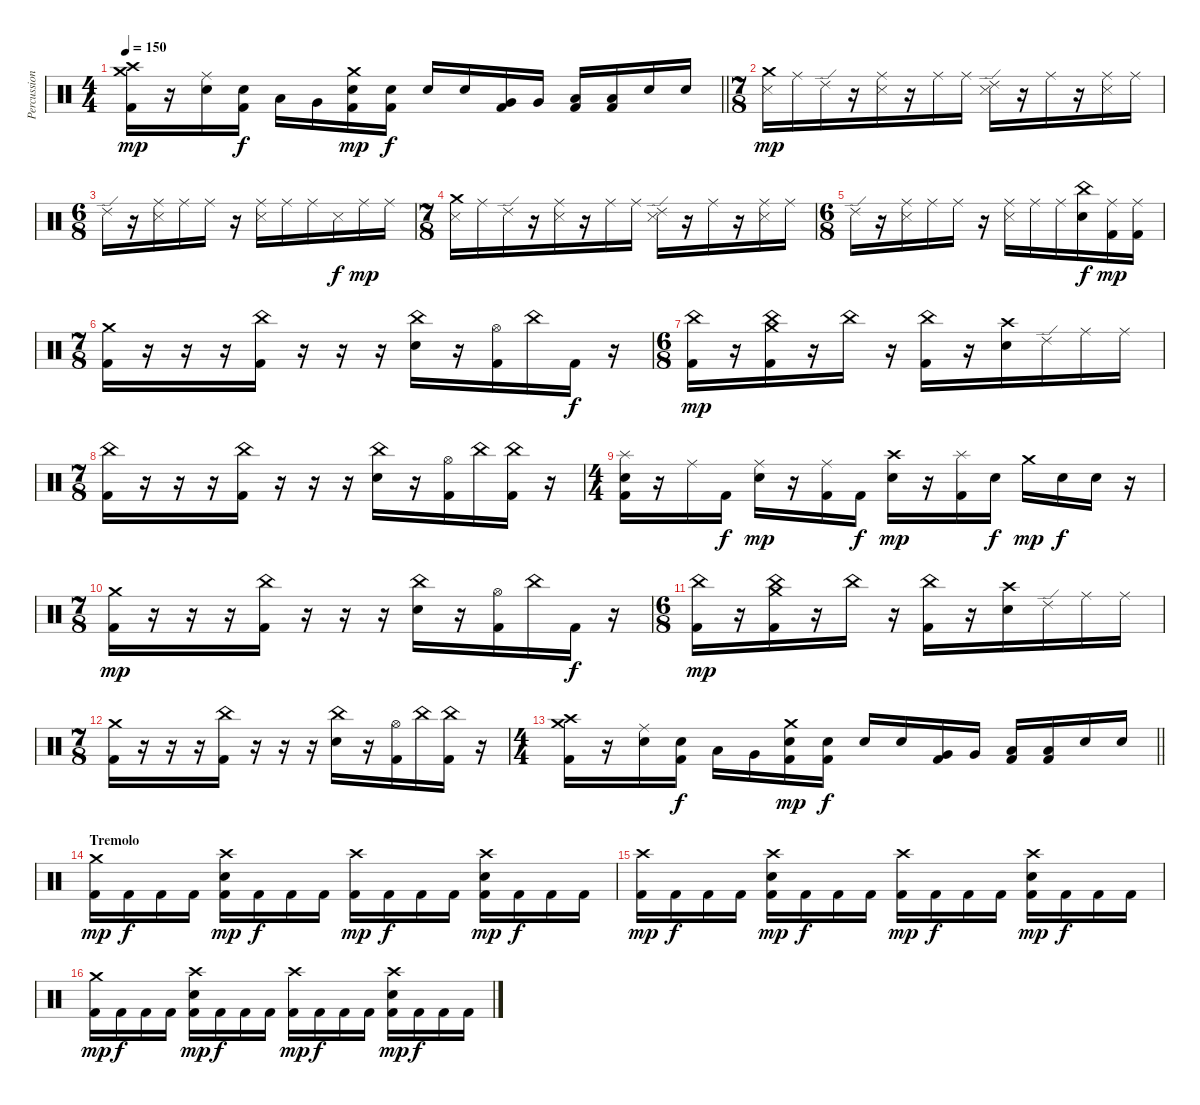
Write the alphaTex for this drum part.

\track ("Percussion" "Percussion") {instrument percussion}
\staff {score}
\articulation defaults
\ts (4 4)
\tempo 150
\clef neutral
\barLineRight lightlight
\ks c
("Crash high (hit)" "Crash medium (hit)" "Kick (hit) 2").16{dy mp} r.16 ("Ride (middle)" "Electric Snare (hit)").16 ("Electric Snare (hit)" "Kick (hit) 2").16{dy f} "Low Tom (hit)".16 "Very Low Tom (hit)".16 ("Crash medium (hit)" "Electric Snare (hit)" "Kick (hit) 2").16{dy mp} ("Electric Snare (hit)" "Kick (hit) 2").16{dy f} "Electric Snare (hit)".16 "Electric Snare (hit)".16 ("Very Low Tom (hit)" "Kick (hit) 2").16 "Very Low Tom (hit)".16 ("Low Floor Tom (hit)" "Kick (hit) 2").16 ("Low Floor Tom (hit)" "Kick (hit) 2").16 "Electric Snare (hit)".16 "Electric Snare (hit)".16 |
\ts (7 8)
("Crash medium (hit)" "Snare (side stick) 3").16{dy mp} "Ride (middle)".16 "Ride (edge) 2".16 r.16 ("Ride (middle)" "Snare (side stick) 3").16 r.16 "Ride (middle)".16 "Ride (middle)".16 ("Ride (edge) 2" "Snare (side stick) 3").16 r.16 "Ride (middle)".16 r.16 ("Ride (middle)" "Snare (side stick) 3").16 "Ride (middle)".16 |
\ts (6 8)
"Ride (edge) 2".16 r.16 ("Ride (middle)" "Snare (side stick) 3").16 "Ride (middle)".16 "Ride (middle)".16 r.16 ("Ride (middle)" "Snare (side stick) 3").16 "Ride (middle)".16 "Ride (middle)".16 "Snare (side stick) 3".16{dy f} "Ride (middle)".16{dy mp} "Ride (middle)".16 |
\ts (7 8)
("Crash medium (hit)" "Snare (side stick) 3").16 "Ride (middle)".16 "Ride (edge) 2".16 r.16 ("Ride (middle)" "Snare (side stick) 3").16 r.16 "Ride (middle)".16 "Ride (middle)".16 ("Ride (edge) 2" "Snare (side stick) 3").16 r.16 "Ride (middle)".16 r.16 ("Ride (middle)" "Snare (side stick) 3").16 "Ride (middle)".16 |
\ts (6 8)
"Ride (edge) 2".16 r.16 ("Ride (middle)" "Snare (side stick) 3").16 "Ride (middle)".16 "Ride (middle)".16 r.16 ("Ride (middle)" "Snare (side stick) 3").16 "Ride (middle)".16 "Ride (middle)".16 ("China (hit)" "Electric Snare (hit)").16{dy f} ("Ride (middle)" "Kick (hit) 2").16{dy mp} ("Ride (middle)" "Kick (hit) 2").16 |
\ts (7 8)
("Crash medium (hit)" "Kick (hit) 2").16 r.16 r.16 r.16 ("China (hit)" "Kick (hit) 2").16 r.16 r.16 r.16 ("China (hit)" "Electric Snare (hit)").16 r.16 ("Hi-Hat (open)" "Kick (hit) 2").16 "China (hit)".16 "Kick (hit) 2".16{dy f} r.16 |
\ts (6 8)
("China (hit)" "Kick (hit) 2").16{dy mp} r.16 ("China (hit)" "Crash medium (hit)" "Kick (hit) 2").16 r.16 "China (hit)".16 r.16 ("China (hit)" "Kick (hit) 2").16 r.16 ("Crash high (hit)" "Electric Snare (hit)").16 "Ride (edge) 2".16 "Ride (middle)".16 "Ride (middle)".16 |
\ts (7 8)
("China (hit)" "Kick (hit) 2").16 r.16 r.16 r.16 ("China (hit)" "Kick (hit) 2").16 r.16 r.16 r.16 ("China (hit)" "Electric Snare (hit)").16 r.16 ("Hi-Hat (open)" "Kick (hit) 2").16 "China (hit)".16 ("China (hit)" "Kick (hit) 2").16 r.16 |
\ts (4 4)
("Splash (hit)" "Electric Snare (hit)" "Kick (hit) 2").16 r.16 "Ride (middle)".16 "Kick (hit) 2".16{dy f} ("Ride (middle)" "Electric Snare (hit)").16{dy mp} r.16 ("Ride (middle)" "Kick (hit) 2").16 "Kick (hit) 2".16{dy f} ("Crash high (hit)" "Electric Snare (hit)").16{dy mp} r.16 ("Splash (hit)" "Kick (hit) 2").16 "Electric Snare (hit)".16{dy f} "Crash medium (hit)".16{dy mp} "Electric Snare (hit)".16{dy f} "Electric Snare (hit)".16 r.16 |
\ts (7 8)
("Crash medium (hit)" "Kick (hit) 2").16{dy mp} r.16 r.16 r.16 ("China (hit)" "Kick (hit) 2").16 r.16 r.16 r.16 ("China (hit)" "Electric Snare (hit)").16 r.16 ("Hi-Hat (open)" "Kick (hit) 2").16 "China (hit)".16 "Kick (hit) 2".16{dy f} r.16 |
\ts (6 8)
("China (hit)" "Kick (hit) 2").16{dy mp} r.16 ("China (hit)" "Crash medium (hit)" "Kick (hit) 2").16 r.16 "China (hit)".16 r.16 ("China (hit)" "Kick (hit) 2").16 r.16 ("Crash high (hit)" "Electric Snare (hit)").16 "Ride (edge) 2".16 "Ride (middle)".16 "Ride (middle)".16 |
\ts (7 8)
("Crash medium (hit)" "Kick (hit) 2").16 r.16 r.16 r.16 ("China (hit)" "Kick (hit) 2").16 r.16 r.16 r.16 ("China (hit)" "Electric Snare (hit)").16 r.16 ("Hi-Hat (open)" "Kick (hit) 2").16 "China (hit)".16 ("China (hit)" "Kick (hit) 2").16 r.16 |
\ts (4 4)
\barLineRight lightlight
("Crash high (hit)" "Crash medium (hit)" "Kick (hit) 2").16 r.16 ("Ride (middle)" "Electric Snare (hit)").16 ("Electric Snare (hit)" "Kick (hit) 2").16{dy f} "Low Tom (hit)".16 "Very Low Tom (hit)".16 ("Crash medium (hit)" "Electric Snare (hit)" "Kick (hit) 2").16{dy mp} ("Electric Snare (hit)" "Kick (hit) 2").16{dy f} "Electric Snare (hit)".16 "Electric Snare (hit)".16 ("Very Low Tom (hit)" "Kick (hit) 2").16 "Very Low Tom (hit)".16 ("Low Floor Tom (hit)" "Kick (hit) 2").16 ("Low Floor Tom (hit)" "Kick (hit) 2").16 "Electric Snare (hit)".16 "Electric Snare (hit)".16 |
\section ("" "Tremolo")
("Crash medium (hit)" "Kick (hit) 2").16{dy mp} "Kick (hit) 2".16{dy f} "Kick (hit) 2".16 "Kick (hit) 2".16 ("Crash high (hit)" "Electric Snare (hit)" "Kick (hit) 2").16{dy mp} "Kick (hit) 2".16{dy f} "Kick (hit) 2".16 "Kick (hit) 2".16 ("Crash high (hit)" "Kick (hit) 2").16{dy mp} "Kick (hit) 2".16{dy f} "Kick (hit) 2".16 "Kick (hit) 2".16 ("Crash high (hit)" "Electric Snare (hit)" "Kick (hit) 2").16{dy mp} "Kick (hit) 2".16{dy f} "Kick (hit) 2".16 "Kick (hit) 2".16 |
("Crash high (hit)" "Kick (hit) 2").16{dy mp} "Kick (hit) 2".16{dy f} "Kick (hit) 2".16 "Kick (hit) 2".16 ("Crash high (hit)" "Electric Snare (hit)" "Kick (hit) 2").16{dy mp} "Kick (hit) 2".16{dy f} "Kick (hit) 2".16 "Kick (hit) 2".16 ("Crash high (hit)" "Kick (hit) 2").16{dy mp} "Kick (hit) 2".16{dy f} "Kick (hit) 2".16 "Kick (hit) 2".16 ("Crash high (hit)" "Electric Snare (hit)" "Kick (hit) 2").16{dy mp} "Kick (hit) 2".16{dy f} "Kick (hit) 2".16 "Kick (hit) 2".16 |
("Crash medium (hit)" "Kick (hit) 2").16{dy mp} "Kick (hit) 2".16{dy f} "Kick (hit) 2".16 "Kick (hit) 2".16 ("Crash high (hit)" "Electric Snare (hit)" "Kick (hit) 2").16{dy mp} "Kick (hit) 2".16{dy f} "Kick (hit) 2".16 "Kick (hit) 2".16 ("Crash high (hit)" "Kick (hit) 2").16{dy mp} "Kick (hit) 2".16{dy f} "Kick (hit) 2".16 "Kick (hit) 2".16 ("Crash high (hit)" "Electric Snare (hit)" "Kick (hit) 2").16{dy mp} "Kick (hit) 2".16{dy f} "Kick (hit) 2".16 "Kick (hit) 2".16
